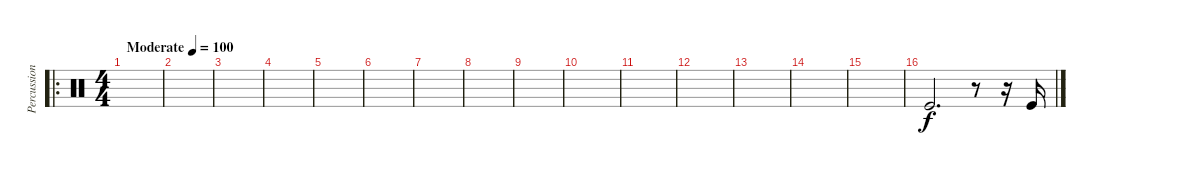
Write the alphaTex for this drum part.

\track ("Percussion" "Percussion") {instrument percussion}
\staff {score}
\articulation defaults
\ro
\ts (4 4)
\tempo (100 "Moderate")
\clef neutral
\ks c
|
|
|
|
|
|
|
|
|
|
|
|
|
|
|
"Kick (hit)".2{d} r.8 r.16 "Kick (hit)".16
